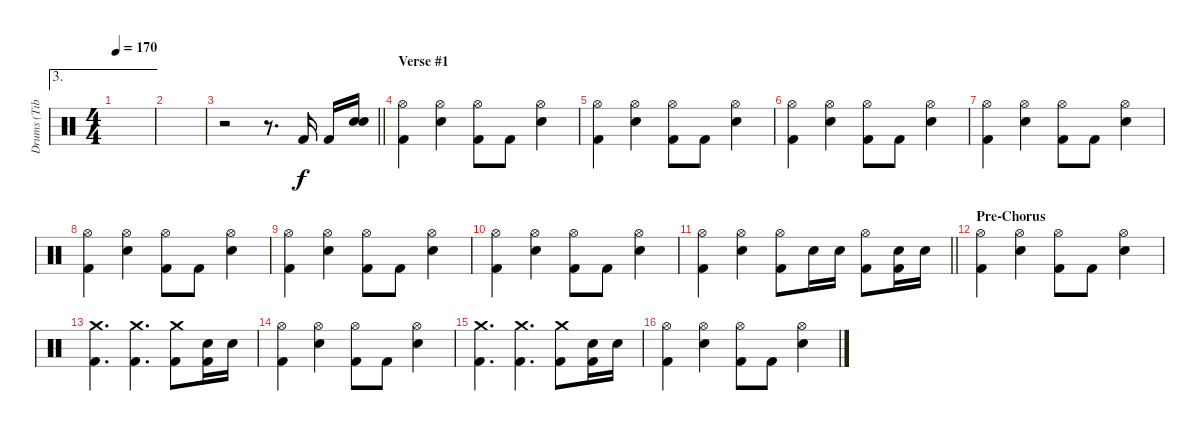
\track ("Drums (Tibcsi Kiss)" "Drums (Tib") {instrument percussion}
\staff {score}
\articulation defaults
\ae 3
\ts (4 4)
\tempo 170
\clef neutral
\ks c
|
|
\barLineRight lightlight
r.2 r.8{d} "Kick (hit) 2".16 "Kick (hit) 2".16 ("Snare (hit) 2" "Snare (hit) 2").16{bu 240} |
\section ("" "Verse #1")
("Hi-Hat (open)" "Kick (hit) 2").4 ("Hi-Hat (open)" "Snare (hit) 2").4 ("Hi-Hat (open)" "Kick (hit) 2").8 "Kick (hit) 2".8 ("Hi-Hat (open)" "Snare (hit) 2").4 |
("Hi-Hat (open)" "Kick (hit) 2").4 ("Hi-Hat (open)" "Snare (hit) 2").4 ("Hi-Hat (open)" "Kick (hit) 2").8 "Kick (hit) 2".8 ("Hi-Hat (open)" "Snare (hit) 2").4 |
("Hi-Hat (open)" "Kick (hit) 2").4 ("Hi-Hat (open)" "Snare (hit) 2").4 ("Hi-Hat (open)" "Kick (hit) 2").8 "Kick (hit) 2".8 ("Hi-Hat (open)" "Snare (hit) 2").4 |
("Hi-Hat (open)" "Kick (hit) 2").4 ("Hi-Hat (open)" "Snare (hit) 2").4 ("Hi-Hat (open)" "Kick (hit) 2").8 "Kick (hit) 2".8 ("Hi-Hat (open)" "Snare (hit) 2").4 |
("Hi-Hat (open)" "Kick (hit) 2").4 ("Hi-Hat (open)" "Snare (hit) 2").4 ("Hi-Hat (open)" "Kick (hit) 2").8 "Kick (hit) 2".8 ("Hi-Hat (open)" "Snare (hit) 2").4 |
("Hi-Hat (open)" "Kick (hit) 2").4 ("Hi-Hat (open)" "Snare (hit) 2").4 ("Hi-Hat (open)" "Kick (hit) 2").8 "Kick (hit) 2".8 ("Hi-Hat (open)" "Snare (hit) 2").4 |
("Hi-Hat (open)" "Kick (hit) 2").4 ("Hi-Hat (open)" "Snare (hit) 2").4 ("Hi-Hat (open)" "Kick (hit) 2").8 "Kick (hit) 2".8 ("Hi-Hat (open)" "Snare (hit) 2").4 |
\barLineRight lightlight
("Hi-Hat (open)" "Kick (hit) 2").4 ("Hi-Hat (open)" "Snare (hit) 2").4 ("Hi-Hat (open)" "Kick (hit) 2").8 "Snare (hit) 2".16 "Snare (hit) 2".16 ("Hi-Hat (open)" "Kick (hit) 2").8 ("Snare (hit) 2" "Kick (hit) 2").16 "Snare (hit) 2".16 |
\section ("" "Pre-Chorus")
("Hi-Hat (open)" "Kick (hit) 2").4 ("Hi-Hat (open)" "Snare (hit) 2").4 ("Hi-Hat (open)" "Kick (hit) 2").8 "Kick (hit) 2".8 ("Hi-Hat (open)" "Snare (hit) 2").4 |
("Crash medium (hit)" "Kick (hit) 2").4{d} ("Crash medium (hit)" "Kick (hit) 2").4{d} ("Crash medium (hit)" "Kick (hit) 2").8 ("Snare (hit) 2" "Kick (hit) 2").16 "Snare (hit) 2".16 |
("Hi-Hat (open)" "Kick (hit) 2").4 ("Hi-Hat (open)" "Snare (hit) 2").4 ("Hi-Hat (open)" "Kick (hit) 2").8 "Kick (hit) 2".8 ("Hi-Hat (open)" "Snare (hit) 2").4 |
("Crash medium (hit)" "Kick (hit) 2").4{d} ("Crash medium (hit)" "Kick (hit) 2").4{d} ("Crash medium (hit)" "Kick (hit) 2").8 ("Snare (hit) 2" "Kick (hit) 2").16 "Snare (hit) 2".16 |
("Hi-Hat (open)" "Kick (hit) 2").4 ("Hi-Hat (open)" "Snare (hit) 2").4 ("Hi-Hat (open)" "Kick (hit) 2").8 "Kick (hit) 2".8 ("Hi-Hat (open)" "Snare (hit) 2").4
